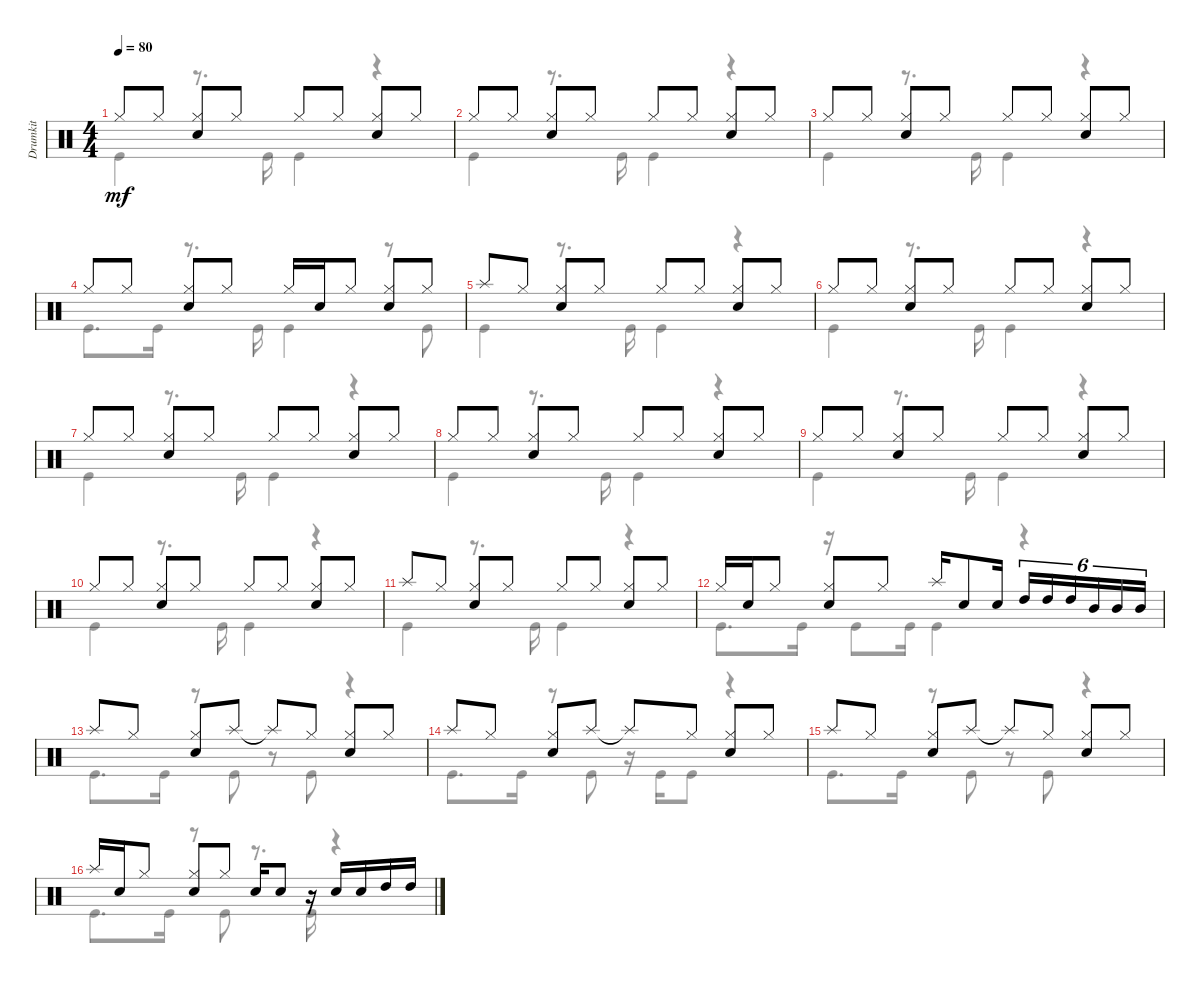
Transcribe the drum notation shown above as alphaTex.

\track ("Drumkit" "Drumkit") {instrument percussion}
\staff {score}
\articulation defaults
\voice
\ts (4 4)
\tempo 80
\clef neutral
\ks c "Hi-Hat (closed)".8{dy mf} "Hi-Hat (closed)".8
("Hi-Hat (closed)" "Snare (hit) 2").8 "Hi-Hat (closed)".8 "Hi-Hat (closed)".8 "Hi-Hat (closed)".8 ("Hi-Hat (closed)" "Snare (hit) 2").8 "Hi-Hat (closed)".8 |
"Hi-Hat (closed)".8 "Hi-Hat (closed)".8 ("Hi-Hat (closed)" "Snare (hit) 2").8 "Hi-Hat (closed)".8 "Hi-Hat (closed)".8 "Hi-Hat (closed)".8 ("Hi-Hat (closed)" "Snare (hit) 2").8 "Hi-Hat (closed)".8 |
"Hi-Hat (closed)".8 "Hi-Hat (closed)".8 ("Hi-Hat (closed)" "Snare (hit) 2").8 "Hi-Hat (closed)".8 "Hi-Hat (closed)".8 "Hi-Hat (closed)".8 ("Hi-Hat (closed)" "Snare (hit) 2").8 "Hi-Hat (closed)".8 |
"Hi-Hat (closed)".8 "Hi-Hat (closed)".8 ("Hi-Hat (closed)" "Snare (hit) 2").8 "Hi-Hat (closed)".8 "Hi-Hat (closed)".16 "Snare (hit) 2".16 "Hi-Hat (closed)".8 ("Hi-Hat (closed)" "Snare (hit) 2").8 "Hi-Hat (closed)".8 |
"Splash (hit)".8 "Hi-Hat (closed)".8 ("Hi-Hat (closed)" "Snare (hit) 2").8 "Hi-Hat (closed)".8 "Hi-Hat (closed)".8 "Hi-Hat (closed)".8 ("Hi-Hat (closed)" "Snare (hit) 2").8 "Hi-Hat (closed)".8 |
"Hi-Hat (closed)".8 "Hi-Hat (closed)".8 ("Hi-Hat (closed)" "Snare (hit) 2").8 "Hi-Hat (closed)".8 "Hi-Hat (closed)".8 "Hi-Hat (closed)".8 ("Hi-Hat (closed)" "Snare (hit) 2").8 "Hi-Hat (closed)".8 |
"Hi-Hat (closed)".8 "Hi-Hat (closed)".8 ("Hi-Hat (closed)" "Snare (hit) 2").8 "Hi-Hat (closed)".8 "Hi-Hat (closed)".8 "Hi-Hat (closed)".8 ("Hi-Hat (closed)" "Snare (hit) 2").8 "Hi-Hat (closed)".8 |
"Hi-Hat (closed)".8 "Hi-Hat (closed)".8 ("Hi-Hat (closed)" "Snare (hit) 2").8 "Hi-Hat (closed)".8 "Hi-Hat (closed)".8 "Hi-Hat (closed)".8 ("Hi-Hat (closed)" "Snare (hit) 2").8 "Hi-Hat (closed)".8 |
"Hi-Hat (closed)".8 "Hi-Hat (closed)".8 ("Hi-Hat (closed)" "Snare (hit) 2").8 "Hi-Hat (closed)".8 "Hi-Hat (closed)".8 "Hi-Hat (closed)".8 ("Hi-Hat (closed)" "Snare (hit) 2").8 "Hi-Hat (closed)".8 |
"Hi-Hat (closed)".8 "Hi-Hat (closed)".8 ("Hi-Hat (closed)" "Snare (hit) 2").8 "Hi-Hat (closed)".8 "Hi-Hat (closed)".8 "Hi-Hat (closed)".8 ("Hi-Hat (closed)" "Snare (hit) 2").8 "Hi-Hat (closed)".8 |
"Splash (hit)".8 "Hi-Hat (closed)".8 ("Hi-Hat (closed)" "Snare (hit) 2").8 "Hi-Hat (closed)".8 "Hi-Hat (closed)".8 "Hi-Hat (closed)".8 ("Hi-Hat (closed)" "Snare (hit) 2").8 "Hi-Hat (closed)".8 |
"Hi-Hat (closed)".16 "Snare (hit) 2".16 "Hi-Hat (closed)".8 ("Hi-Hat (closed)" "Snare (hit) 2").8 "Hi-Hat (closed)".8 "Splash (hit)".16 "Snare (hit) 2".8 "Snare (hit) 2".16 "High Tom (hit)".16{tu (6 4)} "High Tom (hit)".16{tu (6 4)} "High Tom (hit)".16{tu (6 4)} "Mid Tom (hit)".16{tu (6 4)} "Mid Tom (hit)".16{tu (6 4)} "Mid Tom (hit)".16{tu (6 4)} |
"Splash (hit)".8 "Hi-Hat (closed)".8 ("Hi-Hat (closed)" "Snare (hit) 2").8 "Splash (hit)".8 "Splash (hit)"{t}.8 "Hi-Hat (closed)".8 ("Hi-Hat (closed)" "Snare (hit) 2").8 "Hi-Hat (closed)".8 |
"Splash (hit)".8 "Hi-Hat (closed)".8 ("Hi-Hat (closed)" "Snare (hit) 2").8 "Splash (hit)".8 "Splash (hit)"{t}.8 "Hi-Hat (closed)".8 ("Hi-Hat (closed)" "Snare (hit) 2").8 "Hi-Hat (closed)".8 |
"Splash (hit)".8 "Hi-Hat (closed)".8 ("Hi-Hat (closed)" "Snare (hit) 2").8 "Splash (hit)".8 "Splash (hit)"{t}.8 "Hi-Hat (closed)".8 ("Hi-Hat (closed)" "Snare (hit) 2").8 "Hi-Hat (closed)".8 |
"Splash (hit)".16 "Snare (hit) 2".16 "Hi-Hat (closed)".8 ("Hi-Hat (closed)" "Snare (hit) 2").8 "Hi-Hat (closed)".8 "Snare (hit) 2".16 "Snare (hit) 2".8 r.16 "Snare (hit) 2".16 "Snare (hit) 2".16 "High Tom (hit)".16 "High Tom (hit)".16
\voice
\clef neutral
\ottava regular
\simile none
\ks c "Kick (hit)".4{dy mf}
r.8{d} "Kick (hit)".16 "Kick (hit)".4 r.4 |
"Kick (hit)".4 r.8{d} "Kick (hit)".16 "Kick (hit)".4 r.4 |
"Kick (hit)".4 r.8{d} "Kick (hit)".16 "Kick (hit)".4 r.4 |
"Kick (hit)".8{d} "Kick (hit)".16 r.8{d} "Kick (hit)".16 "Kick (hit)".4 r.8 "Kick (hit)".8 |
"Kick (hit)".4 r.8{d} "Kick (hit)".16 "Kick (hit)".4 r.4 |
"Kick (hit)".4 r.8{d} "Kick (hit)".16 "Kick (hit)".4 r.4 |
"Kick (hit)".4 r.8{d} "Kick (hit)".16 "Kick (hit)".4 r.4 |
"Kick (hit)".4 r.8{d} "Kick (hit)".16 "Kick (hit)".4 r.4 |
"Kick (hit)".4 r.8{d} "Kick (hit)".16 "Kick (hit)".4 r.4 |
"Kick (hit)".4 r.8{d} "Kick (hit)".16 "Kick (hit)".4 r.4 |
"Kick (hit)".4 r.8{d} "Kick (hit)".16 "Kick (hit)".4 r.4 |
"Kick (hit)".8{d} "Kick (hit)".16 r.16 "Kick (hit)".8 "Kick (hit)".16 "Kick (hit)".4 r.4 |
"Kick (hit)".8{d} "Kick (hit)".16 r.8 "Kick (hit)".8 r.8 "Kick (hit)".8 r.4 |
"Kick (hit)".8{d} "Kick (hit)".16 r.8 "Kick (hit)".8 r.16 "Kick (hit)".16 "Kick (hit)".8 r.4 |
"Kick (hit)".8{d} "Kick (hit)".16 r.8 "Kick (hit)".8 r.8 "Kick (hit)".8 r.4 |
"Kick (hit)".8{d} "Kick (hit)".16 r.8 "Kick (hit)".8 r.8{d} "Kick (hit)".16 r.4
